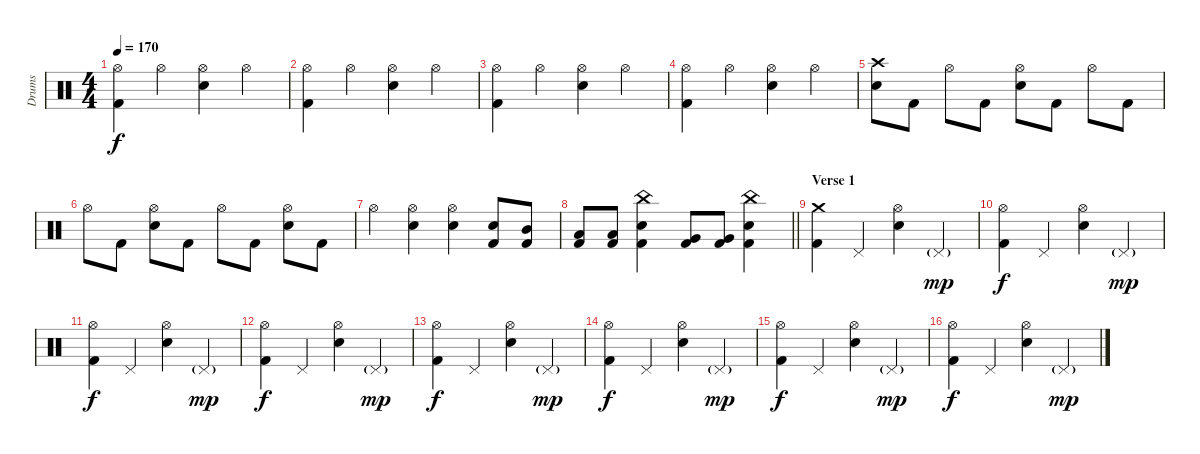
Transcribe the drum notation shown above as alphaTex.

\track ("Drums" "Drums") {instrument percussion}
\staff {score}
\articulation defaults
\ts (4 4)
\tempo 170
\clef neutral
\ks c
("Hi-Hat (open)" "Kick (hit) 2").4{dy f} "Hi-Hat (open)".4 ("Hi-Hat (open)" "Electric Snare (hit)").4 "Hi-Hat (open)".4 |
("Hi-Hat (open)" "Kick (hit) 2").4 "Hi-Hat (open)".4 ("Hi-Hat (open)" "Electric Snare (hit)").4 "Hi-Hat (open)".4 |
("Hi-Hat (open)" "Kick (hit) 2").4 "Hi-Hat (open)".4 ("Hi-Hat (open)" "Electric Snare (hit)").4 "Hi-Hat (open)".4 |
("Hi-Hat (open)" "Kick (hit) 2").4 "Hi-Hat (open)".4 ("Hi-Hat (open)" "Electric Snare (hit)").4 "Hi-Hat (open)".4 |
("Crash high (hit)" "Electric Snare (hit)").8 "Kick (hit) 2".8 "Hi-Hat (open)".8 "Kick (hit) 2".8 ("Hi-Hat (open)" "Electric Snare (hit)").8 "Kick (hit) 2".8 "Hi-Hat (open)".8 "Kick (hit) 2".8 |
"Hi-Hat (open)".8 "Kick (hit) 2".8 ("Hi-Hat (open)" "Electric Snare (hit)").8 "Kick (hit) 2".8 "Hi-Hat (open)".8 "Kick (hit) 2".8 ("Hi-Hat (open)" "Electric Snare (hit)").8 "Kick (hit) 2".8 |
"Hi-Hat (open)".4 ("Hi-Hat (open)" "Electric Snare (hit)").4 ("Hi-Hat (open)" "Electric Snare (hit)").4 ("Electric Snare (hit)" "Kick (hit) 2").8 ("Mid Tom (hit)" "Kick (hit) 2").8 |
\barLineRight lightlight
("Low Tom (hit)" "Kick (hit) 2").8 ("Low Tom (hit)" "Kick (hit) 2").8 ("China (hit)" "Electric Snare (hit)" "Kick (hit) 2").4 ("Very Low Tom (hit)" "Kick (hit) 2").8 ("Very Low Tom (hit)" "Kick (hit) 2").8 ("China (hit)" "Electric Snare (hit)" "Kick (hit) 2").4 |
\section ("" "Verse 1")
("Crash medium (hit)" "Kick (hit) 2").4 "Pedal Hi-Hat (hit)".4 ("Hi-Hat (open)" "Electric Snare (hit)").4 "Pedal Hi-Hat (hit)"{g}.4{dy mp} |
("Hi-Hat (open)" "Kick (hit) 2").4{dy f} "Pedal Hi-Hat (hit)".4 ("Hi-Hat (open)" "Electric Snare (hit)").4 "Pedal Hi-Hat (hit)"{g}.4{dy mp} |
("Hi-Hat (open)" "Kick (hit) 2").4{dy f} "Pedal Hi-Hat (hit)".4 ("Hi-Hat (open)" "Electric Snare (hit)").4 "Pedal Hi-Hat (hit)"{g}.4{dy mp} |
("Hi-Hat (open)" "Kick (hit) 2").4{dy f} "Pedal Hi-Hat (hit)".4 ("Hi-Hat (open)" "Electric Snare (hit)").4 "Pedal Hi-Hat (hit)"{g}.4{dy mp} |
("Hi-Hat (open)" "Kick (hit) 2").4{dy f} "Pedal Hi-Hat (hit)".4 ("Hi-Hat (open)" "Electric Snare (hit)").4 "Pedal Hi-Hat (hit)"{g}.4{dy mp} |
("Hi-Hat (open)" "Kick (hit) 2").4{dy f} "Pedal Hi-Hat (hit)".4 ("Hi-Hat (open)" "Electric Snare (hit)").4 "Pedal Hi-Hat (hit)"{g}.4{dy mp} |
("Hi-Hat (open)" "Kick (hit) 2").4{dy f} "Pedal Hi-Hat (hit)".4 ("Hi-Hat (open)" "Electric Snare (hit)").4 "Pedal Hi-Hat (hit)"{g}.4{dy mp} |
("Hi-Hat (open)" "Kick (hit) 2").4{dy f} "Pedal Hi-Hat (hit)".4 ("Hi-Hat (open)" "Electric Snare (hit)").4 "Pedal Hi-Hat (hit)"{g}.4{dy mp}
